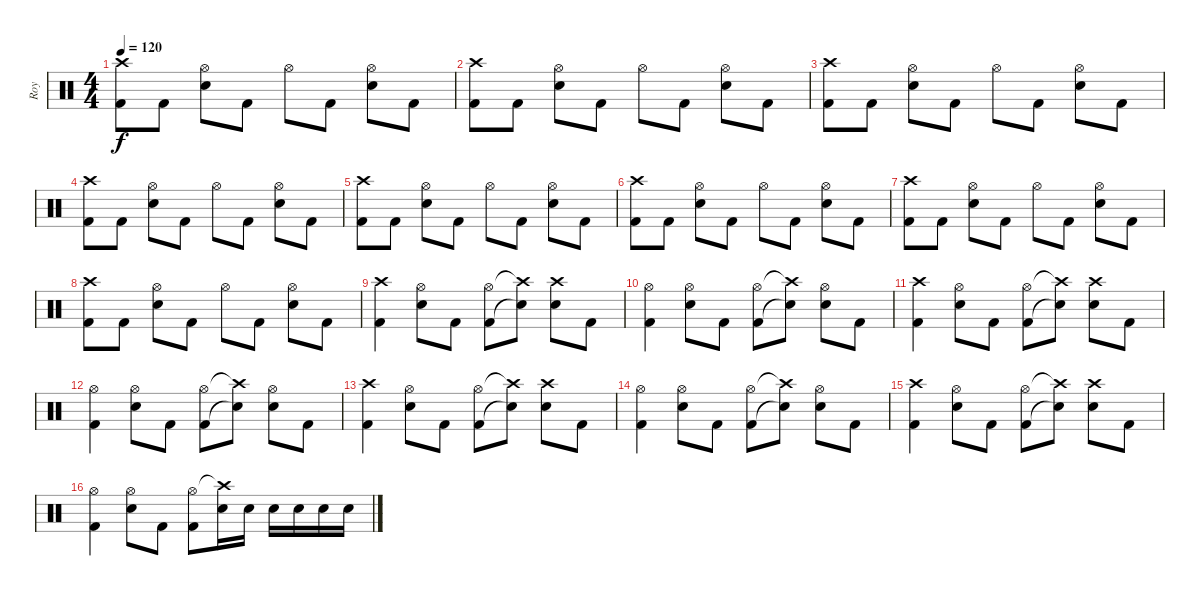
\track ("Roy" "Roy") {instrument percussion}
\staff {score}
\articulation defaults
\ts (4 4)
\tempo 120
\clef neutral
\ks c
("Crash high (hit)" "Kick (hit) 2").8{dy f} "Kick (hit) 2".8 ("Hi-Hat (open)" "Electric Snare (hit)").8 "Kick (hit) 2".8 "Hi-Hat (open)".8 "Kick (hit) 2".8 ("Hi-Hat (open)" "Electric Snare (hit)").8 "Kick (hit) 2".8 |
("Crash high (hit)" "Kick (hit) 2").8 "Kick (hit) 2".8 ("Hi-Hat (open)" "Electric Snare (hit)").8 "Kick (hit) 2".8 "Hi-Hat (open)".8 "Kick (hit) 2".8 ("Hi-Hat (open)" "Electric Snare (hit)").8 "Kick (hit) 2".8 |
("Crash high (hit)" "Kick (hit) 2").8 "Kick (hit) 2".8 ("Hi-Hat (open)" "Electric Snare (hit)").8 "Kick (hit) 2".8 "Hi-Hat (open)".8 "Kick (hit) 2".8 ("Hi-Hat (open)" "Electric Snare (hit)").8 "Kick (hit) 2".8 |
("Crash high (hit)" "Kick (hit) 2").8 "Kick (hit) 2".8 ("Hi-Hat (open)" "Electric Snare (hit)").8 "Kick (hit) 2".8 "Hi-Hat (open)".8 "Kick (hit) 2".8 ("Hi-Hat (open)" "Electric Snare (hit)").8 "Kick (hit) 2".8 |
("Crash high (hit)" "Kick (hit) 2").8 "Kick (hit) 2".8 ("Hi-Hat (open)" "Electric Snare (hit)").8 "Kick (hit) 2".8 "Hi-Hat (open)".8 "Kick (hit) 2".8 ("Hi-Hat (open)" "Electric Snare (hit)").8 "Kick (hit) 2".8 |
("Crash high (hit)" "Kick (hit) 2").8 "Kick (hit) 2".8 ("Hi-Hat (open)" "Electric Snare (hit)").8 "Kick (hit) 2".8 "Hi-Hat (open)".8 "Kick (hit) 2".8 ("Hi-Hat (open)" "Electric Snare (hit)").8 "Kick (hit) 2".8 |
("Crash high (hit)" "Kick (hit) 2").8 "Kick (hit) 2".8 ("Hi-Hat (open)" "Electric Snare (hit)").8 "Kick (hit) 2".8 "Hi-Hat (open)".8 "Kick (hit) 2".8 ("Hi-Hat (open)" "Electric Snare (hit)").8 "Kick (hit) 2".8 |
("Crash high (hit)" "Kick (hit) 2").8 "Kick (hit) 2".8 ("Hi-Hat (open)" "Electric Snare (hit)").8 "Kick (hit) 2".8 "Hi-Hat (open)".8 "Kick (hit) 2".8 ("Hi-Hat (open)" "Electric Snare (hit)").8 "Kick (hit) 2".8 |
("Crash high (hit)" "Kick (hit) 2").4 ("Hi-Hat (open)" "Electric Snare (hit)").8 "Kick (hit) 2".8 ("Hi-Hat (open)" "Kick (hit) 2").8 ("Crash high (hit)"{t} "Electric Snare (hit)"{t}).8 ("Crash high (hit)" "Electric Snare (hit)").8 "Kick (hit) 2".8 |
("Hi-Hat (open)" "Kick (hit) 2").4 ("Hi-Hat (open)" "Electric Snare (hit)").8 "Kick (hit) 2".8 ("Hi-Hat (open)" "Kick (hit) 2").8 ("Crash high (hit)"{t} "Electric Snare (hit)"{t}).8 ("Hi-Hat (open)" "Electric Snare (hit)").8 "Kick (hit) 2".8 |
("Crash high (hit)" "Kick (hit) 2").4 ("Hi-Hat (open)" "Electric Snare (hit)").8 "Kick (hit) 2".8 ("Hi-Hat (open)" "Kick (hit) 2").8 ("Crash high (hit)"{t} "Electric Snare (hit)"{t}).8 ("Crash high (hit)" "Electric Snare (hit)").8 "Kick (hit) 2".8 |
("Hi-Hat (open)" "Kick (hit) 2").4 ("Hi-Hat (open)" "Electric Snare (hit)").8 "Kick (hit) 2".8 ("Hi-Hat (open)" "Kick (hit) 2").8 ("Crash high (hit)"{t} "Electric Snare (hit)"{t}).8 ("Hi-Hat (open)" "Electric Snare (hit)").8 "Kick (hit) 2".8 |
("Crash high (hit)" "Kick (hit) 2").4 ("Hi-Hat (open)" "Electric Snare (hit)").8 "Kick (hit) 2".8 ("Hi-Hat (open)" "Kick (hit) 2").8 ("Crash high (hit)"{t} "Electric Snare (hit)"{t}).8 ("Crash high (hit)" "Electric Snare (hit)").8 "Kick (hit) 2".8 |
("Hi-Hat (open)" "Kick (hit) 2").4 ("Hi-Hat (open)" "Electric Snare (hit)").8 "Kick (hit) 2".8 ("Hi-Hat (open)" "Kick (hit) 2").8 ("Crash high (hit)"{t} "Electric Snare (hit)"{t}).8 ("Hi-Hat (open)" "Electric Snare (hit)").8 "Kick (hit) 2".8 |
("Crash high (hit)" "Kick (hit) 2").4 ("Hi-Hat (open)" "Electric Snare (hit)").8 "Kick (hit) 2".8 ("Hi-Hat (open)" "Kick (hit) 2").8 ("Crash high (hit)"{t} "Electric Snare (hit)"{t}).8 ("Crash high (hit)" "Electric Snare (hit)").8 "Kick (hit) 2".8 |
("Hi-Hat (open)" "Kick (hit) 2").4 ("Hi-Hat (open)" "Electric Snare (hit)").8 "Kick (hit) 2".8 ("Hi-Hat (open)" "Kick (hit) 2").8 ("Crash high (hit)"{t} "Electric Snare (hit)").16 "Electric Snare (hit)".16 "Electric Snare (hit)".16 "Electric Snare (hit)".16 "Electric Snare (hit)".16 "Electric Snare (hit)".16
